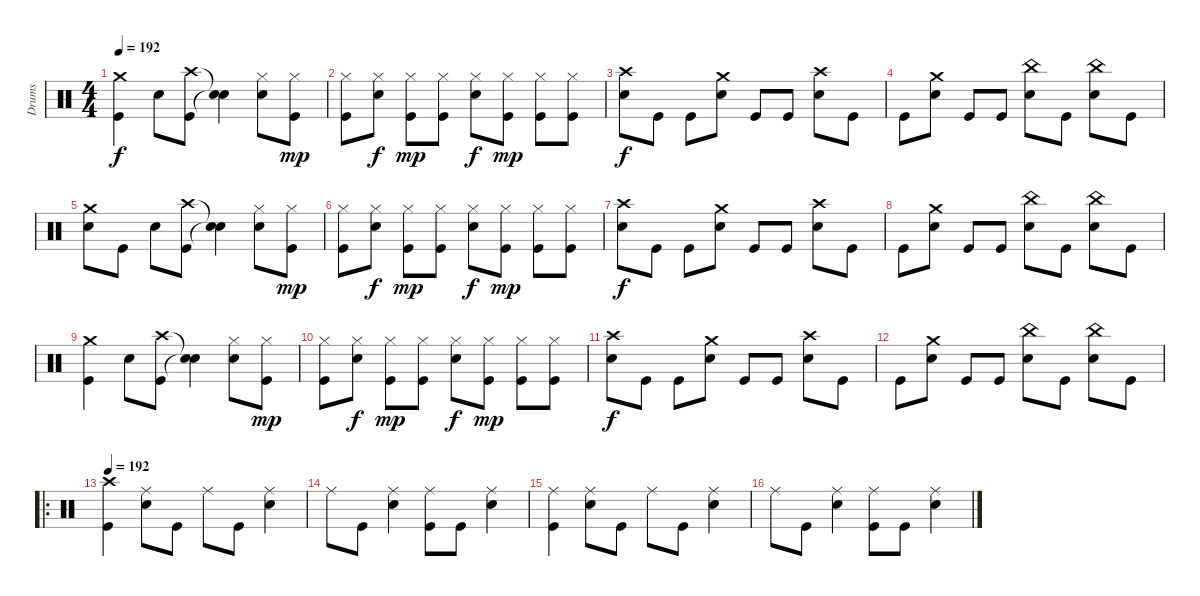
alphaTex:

\track ("Drums" "Drums") {instrument percussion}
\staff {score}
\articulation defaults
\ts (4 4)
\tempo 192
\clef neutral
\ks c
("Crash medium (hit)" "Kick (hit)").4{dy f} "Electric Snare (hit)".8 ("Crash high (hit)" "Kick (hit)").8 ("Snare (hit)"{t} "Snare (hit)"{t}).4 ("Hi-Hat (closed)" "Electric Snare (hit)").8 ("Hi-Hat (closed)" "Kick (hit)").8{dy mp} |
("Hi-Hat (closed)" "Kick (hit)").8 ("Hi-Hat (closed)" "Electric Snare (hit)").8{dy f} ("Hi-Hat (closed)" "Kick (hit)").8{dy mp} ("Hi-Hat (closed)" "Kick (hit)").8 ("Hi-Hat (closed)" "Electric Snare (hit)").8{dy f} ("Hi-Hat (closed)" "Kick (hit)").8{dy mp} ("Hi-Hat (closed)" "Kick (hit)").8 ("Hi-Hat (closed)" "Kick (hit)").8 |
("Crash high (hit)" "Electric Snare (hit)").8{dy f} "Kick (hit)".8 "Kick (hit)".8 ("Crash medium (hit)" "Electric Snare (hit)").8 "Kick (hit)".8 "Kick (hit)".8 ("Crash high (hit)" "Electric Snare (hit)").8 "Kick (hit)".8 |
"Kick (hit)".8 ("Crash medium (hit)" "Electric Snare (hit)").8 "Kick (hit)".8 "Kick (hit)".8 ("China (hit)" "Electric Snare (hit)").8 "Kick (hit)".8 ("China (hit)" "Electric Snare (hit)").8 "Kick (hit)".8 |
("Crash medium (hit)" "Electric Snare (hit)").8 "Kick (hit)".8 "Electric Snare (hit)".8 ("Crash high (hit)" "Kick (hit)").8 ("Snare (hit)"{t} "Snare (hit)"{t}).4 ("Hi-Hat (closed)" "Electric Snare (hit)").8 ("Hi-Hat (closed)" "Kick (hit)").8{dy mp} |
("Hi-Hat (closed)" "Kick (hit)").8 ("Hi-Hat (closed)" "Electric Snare (hit)").8{dy f} ("Hi-Hat (closed)" "Kick (hit)").8{dy mp} ("Hi-Hat (closed)" "Kick (hit)").8 ("Hi-Hat (closed)" "Electric Snare (hit)").8{dy f} ("Hi-Hat (closed)" "Kick (hit)").8{dy mp} ("Hi-Hat (closed)" "Kick (hit)").8 ("Hi-Hat (closed)" "Kick (hit)").8 |
("Crash high (hit)" "Electric Snare (hit)").8{dy f} "Kick (hit)".8 "Kick (hit)".8 ("Crash medium (hit)" "Electric Snare (hit)").8 "Kick (hit)".8 "Kick (hit)".8 ("Crash high (hit)" "Electric Snare (hit)").8 "Kick (hit)".8 |
"Kick (hit)".8 ("Crash medium (hit)" "Electric Snare (hit)").8 "Kick (hit)".8 "Kick (hit)".8 ("China (hit)" "Electric Snare (hit)").8 "Kick (hit)".8 ("China (hit)" "Electric Snare (hit)").8 "Kick (hit)".8 |
("Crash medium (hit)" "Kick (hit)").4 "Electric Snare (hit)".8 ("Crash high (hit)" "Kick (hit)").8 ("Snare (hit)"{t} "Snare (hit)"{t}).4 ("Hi-Hat (closed)" "Electric Snare (hit)").8 ("Hi-Hat (closed)" "Kick (hit)").8{dy mp} |
("Hi-Hat (closed)" "Kick (hit)").8 ("Hi-Hat (closed)" "Electric Snare (hit)").8{dy f} ("Hi-Hat (closed)" "Kick (hit)").8{dy mp} ("Hi-Hat (closed)" "Kick (hit)").8 ("Hi-Hat (closed)" "Electric Snare (hit)").8{dy f} ("Hi-Hat (closed)" "Kick (hit)").8{dy mp} ("Hi-Hat (closed)" "Kick (hit)").8 ("Hi-Hat (closed)" "Kick (hit)").8 |
("Crash high (hit)" "Electric Snare (hit)").8{dy f} "Kick (hit)".8 "Kick (hit)".8 ("Crash medium (hit)" "Electric Snare (hit)").8 "Kick (hit)".8 "Kick (hit)".8 ("Crash high (hit)" "Electric Snare (hit)").8 "Kick (hit)".8 |
"Kick (hit)".8 ("Crash medium (hit)" "Electric Snare (hit)").8 "Kick (hit)".8 "Kick (hit)".8 ("China (hit)" "Electric Snare (hit)").8 "Kick (hit)".8 ("China (hit)" "Electric Snare (hit)").8 "Kick (hit)".8 |
\ro
\tempo 192
("Crash high (hit)" "Kick (hit)").4 ("Ride (middle)" "Electric Snare (hit)").8 "Kick (hit)".8 "Ride (middle)".8 "Kick (hit)".8 ("Ride (middle)" "Electric Snare (hit)").4 |
"Ride (middle)".8 "Kick (hit)".8 ("Ride (middle)" "Electric Snare (hit)").4 ("Ride (middle)" "Kick (hit)").8 "Kick (hit)".8 ("Ride (middle)" "Electric Snare (hit)").4 |
("Ride (middle)" "Kick (hit)").4 ("Ride (middle)" "Electric Snare (hit)").8 "Kick (hit)".8 "Ride (middle)".8 "Kick (hit)".8 ("Ride (middle)" "Electric Snare (hit)").4 |
"Ride (middle)".8 "Kick (hit)".8 ("Ride (middle)" "Electric Snare (hit)").4 ("Ride (middle)" "Kick (hit)").8 "Kick (hit)".8 ("Ride (middle)" "Electric Snare (hit)").4
